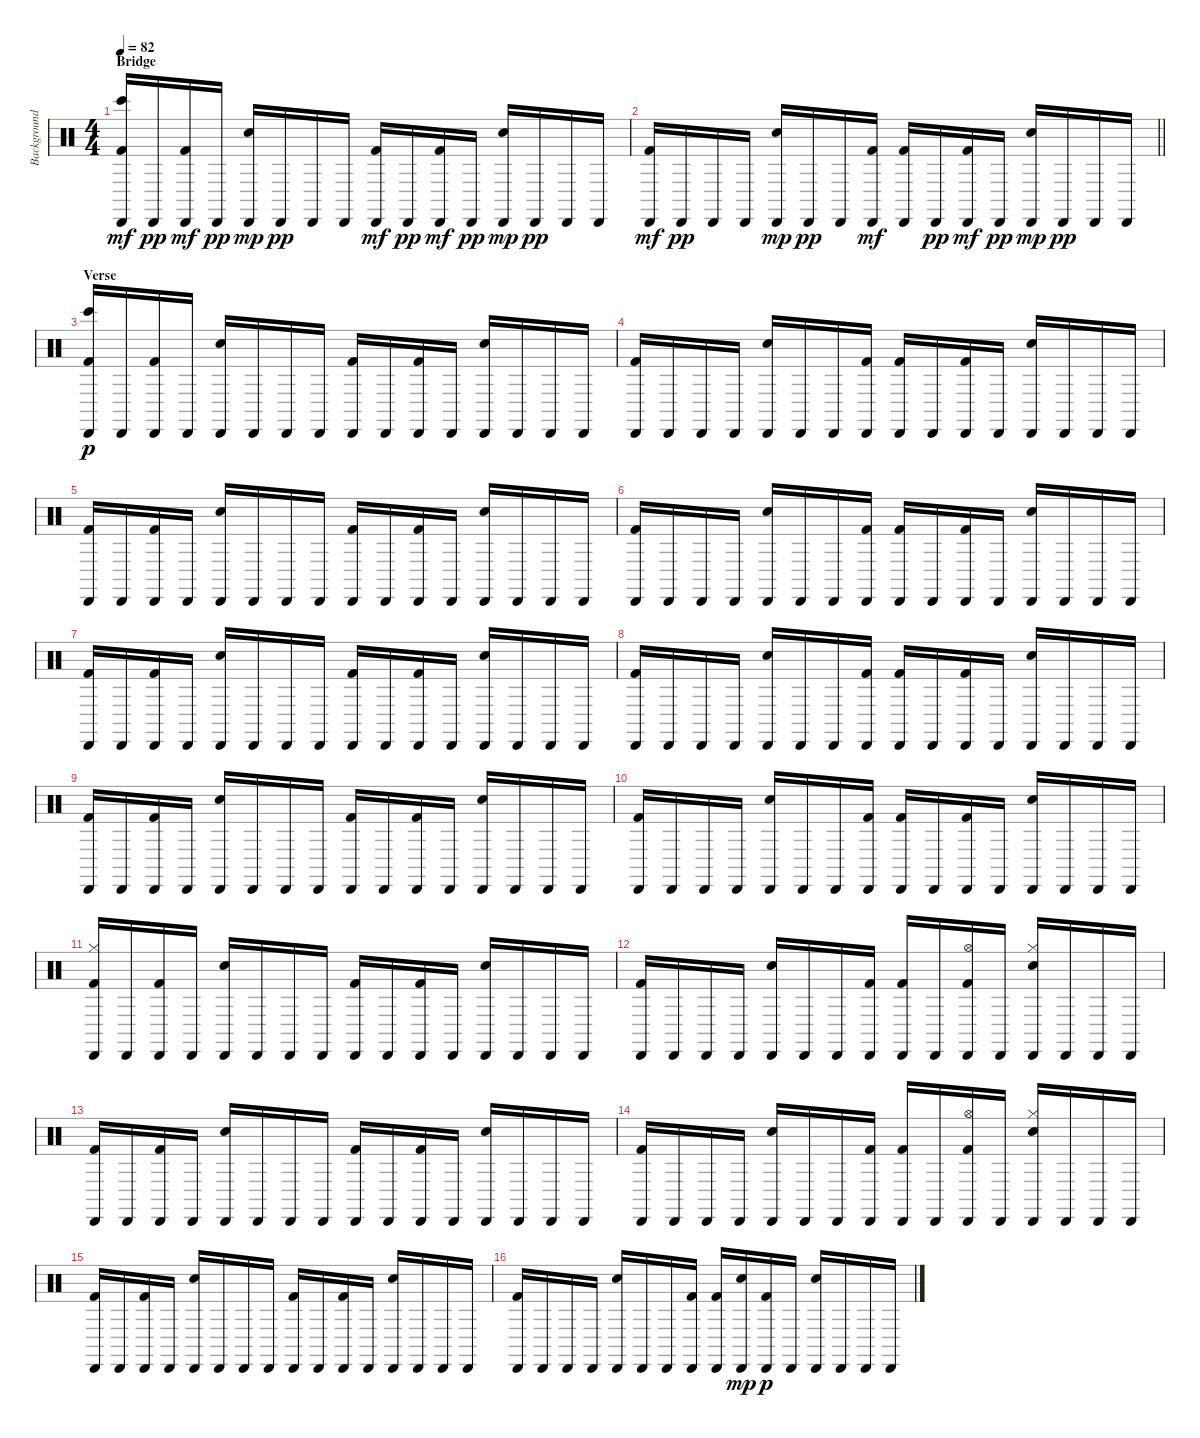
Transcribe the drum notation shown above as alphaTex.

\track ("Background Drums" "Background") {instrument percussion}
\staff {score}
\articulation defaults
\ts (4 4)
\section ("" "Bridge")
\tempo 82
\clef neutral
\ks c
("Cabasa (hit)" "Bongo High (hit)" "Kick (hit) 2").16{dy mf volume 10} "Cabasa (hit)".16{dy pp} ("Cabasa (hit)" "Kick (hit) 2").16{dy mf} "Cabasa (hit)".16{dy pp} ("Cabasa (hit)" "Electric Snare (hit)").16{dy mp} "Cabasa (hit)".16{dy pp} "Cabasa (hit)".16 "Cabasa (hit)".16 ("Cabasa (hit)" "Kick (hit) 2").16{dy mf} "Cabasa (hit)".16{dy pp} ("Cabasa (hit)" "Kick (hit) 2").16{dy mf} "Cabasa (hit)".16{dy pp} ("Cabasa (hit)" "Electric Snare (hit)").16{dy mp} "Cabasa (hit)".16{dy pp} "Cabasa (hit)".16 "Cabasa (hit)".16 |
\barLineRight lightlight
("Cabasa (hit)" "Kick (hit) 2").16{dy mf} "Cabasa (hit)".16{dy pp} "Cabasa (hit)".16 "Cabasa (hit)".16 ("Cabasa (hit)" "Electric Snare (hit)").16{dy mp} "Cabasa (hit)".16{dy pp} "Cabasa (hit)".16 ("Cabasa (hit)" "Kick (hit) 2").16{dy mf} ("Cabasa (hit)" "Kick (hit) 2").16 "Cabasa (hit)".16{dy pp} ("Cabasa (hit)" "Kick (hit) 2").16{dy mf} "Cabasa (hit)".16{dy pp} ("Cabasa (hit)" "Electric Snare (hit)").16{dy mp} "Cabasa (hit)".16{dy pp} "Cabasa (hit)".16 "Cabasa (hit)".16 |
\section ("" "Verse")
("Cabasa (hit)" "Bongo High (hit)" "Kick (hit) 2").16{dy p} "Cabasa (hit)".16 ("Cabasa (hit)" "Kick (hit) 2").16 "Cabasa (hit)".16 ("Cabasa (hit)" "Snare (hit) 2").16 "Cabasa (hit)".16 "Cabasa (hit)".16 "Cabasa (hit)".16 ("Cabasa (hit)" "Kick (hit) 2").16 "Cabasa (hit)".16 ("Cabasa (hit)" "Kick (hit) 2").16 "Cabasa (hit)".16 ("Cabasa (hit)" "Snare (hit) 2").16 "Cabasa (hit)".16 "Cabasa (hit)".16 "Cabasa (hit)".16 |
("Cabasa (hit)" "Kick (hit) 2").16 "Cabasa (hit)".16 "Cabasa (hit)".16 "Cabasa (hit)".16 ("Cabasa (hit)" "Snare (hit) 2").16 "Cabasa (hit)".16 "Cabasa (hit)".16 ("Cabasa (hit)" "Kick (hit) 2").16 ("Cabasa (hit)" "Kick (hit) 2").16 "Cabasa (hit)".16 ("Cabasa (hit)" "Kick (hit) 2").16 "Cabasa (hit)".16 ("Cabasa (hit)" "Snare (hit) 2").16 "Cabasa (hit)".16 "Cabasa (hit)".16 "Cabasa (hit)".16 |
("Cabasa (hit)" "Kick (hit) 2").16 "Cabasa (hit)".16 ("Cabasa (hit)" "Kick (hit) 2").16 "Cabasa (hit)".16 ("Cabasa (hit)" "Snare (hit) 2").16 "Cabasa (hit)".16 "Cabasa (hit)".16 "Cabasa (hit)".16 ("Cabasa (hit)" "Kick (hit) 2").16 "Cabasa (hit)".16 ("Cabasa (hit)" "Kick (hit) 2").16 "Cabasa (hit)".16 ("Cabasa (hit)" "Snare (hit) 2").16 "Cabasa (hit)".16 "Cabasa (hit)".16 "Cabasa (hit)".16 |
("Cabasa (hit)" "Kick (hit) 2").16 "Cabasa (hit)".16 "Cabasa (hit)".16 "Cabasa (hit)".16 ("Cabasa (hit)" "Snare (hit) 2").16 "Cabasa (hit)".16 "Cabasa (hit)".16 ("Cabasa (hit)" "Kick (hit) 2").16 ("Cabasa (hit)" "Kick (hit) 2").16 "Cabasa (hit)".16 ("Cabasa (hit)" "Kick (hit) 2").16 "Cabasa (hit)".16 ("Cabasa (hit)" "Snare (hit) 2").16 "Cabasa (hit)".16 "Cabasa (hit)".16 "Cabasa (hit)".16 |
("Cabasa (hit)" "Kick (hit) 2").16 "Cabasa (hit)".16 ("Cabasa (hit)" "Kick (hit) 2").16 "Cabasa (hit)".16 ("Cabasa (hit)" "Snare (hit) 2").16 "Cabasa (hit)".16 "Cabasa (hit)".16 "Cabasa (hit)".16 ("Cabasa (hit)" "Kick (hit) 2").16 "Cabasa (hit)".16 ("Cabasa (hit)" "Kick (hit) 2").16 "Cabasa (hit)".16 ("Cabasa (hit)" "Snare (hit) 2").16 "Cabasa (hit)".16 "Cabasa (hit)".16 "Cabasa (hit)".16 |
("Cabasa (hit)" "Kick (hit) 2").16 "Cabasa (hit)".16 "Cabasa (hit)".16 "Cabasa (hit)".16 ("Cabasa (hit)" "Snare (hit) 2").16 "Cabasa (hit)".16 "Cabasa (hit)".16 ("Cabasa (hit)" "Kick (hit) 2").16 ("Cabasa (hit)" "Kick (hit) 2").16 "Cabasa (hit)".16 ("Cabasa (hit)" "Kick (hit) 2").16 "Cabasa (hit)".16 ("Cabasa (hit)" "Snare (hit) 2").16 "Cabasa (hit)".16 "Cabasa (hit)".16 "Cabasa (hit)".16 |
("Cabasa (hit)" "Kick (hit) 2").16 "Cabasa (hit)".16 ("Cabasa (hit)" "Kick (hit) 2").16 "Cabasa (hit)".16 ("Cabasa (hit)" "Snare (hit) 2").16 "Cabasa (hit)".16 "Cabasa (hit)".16 "Cabasa (hit)".16 ("Cabasa (hit)" "Kick (hit) 2").16 "Cabasa (hit)".16 ("Cabasa (hit)" "Kick (hit) 2").16 "Cabasa (hit)".16 ("Cabasa (hit)" "Snare (hit) 2").16 "Cabasa (hit)".16 "Cabasa (hit)".16 "Cabasa (hit)".16 |
("Cabasa (hit)" "Kick (hit) 2").16 "Cabasa (hit)".16 "Cabasa (hit)".16 "Cabasa (hit)".16 ("Cabasa (hit)" "Snare (hit) 2").16 "Cabasa (hit)".16 "Cabasa (hit)".16 ("Cabasa (hit)" "Kick (hit) 2").16 ("Cabasa (hit)" "Kick (hit) 2").16 "Cabasa (hit)".16 ("Cabasa (hit)" "Kick (hit) 2").16 "Cabasa (hit)".16 ("Cabasa (hit)" "Snare (hit) 2").16 "Cabasa (hit)".16 "Cabasa (hit)".16 "Cabasa (hit)".16 |
("Hi-Hat (closed)" "Cabasa (hit)" "Kick (hit) 2").16 "Cabasa (hit)".16 ("Cabasa (hit)" "Kick (hit) 2").16 "Cabasa (hit)".16 ("Cabasa (hit)" "Snare (hit) 2").16 "Cabasa (hit)".16 "Cabasa (hit)".16 "Cabasa (hit)".16 ("Cabasa (hit)" "Kick (hit) 2").16 "Cabasa (hit)".16 ("Cabasa (hit)" "Kick (hit) 2").16 "Cabasa (hit)".16 ("Cabasa (hit)" "Snare (hit) 2").16 "Cabasa (hit)".16 "Cabasa (hit)".16 "Cabasa (hit)".16 |
("Cabasa (hit)" "Kick (hit) 2").16 "Cabasa (hit)".16 "Cabasa (hit)".16 "Cabasa (hit)".16 ("Cabasa (hit)" "Snare (hit) 2").16 "Cabasa (hit)".16 "Cabasa (hit)".16 ("Cabasa (hit)" "Kick (hit) 2").16 ("Cabasa (hit)" "Kick (hit) 2").16 "Cabasa (hit)".16 ("Hi-Hat (open)" "Cabasa (hit)" "Kick (hit) 2").16 "Cabasa (hit)".16 ("Hi-Hat (closed)" "Cabasa (hit)" "Snare (hit) 2").16 "Cabasa (hit)".16 "Cabasa (hit)".16 "Cabasa (hit)".16 |
("Cabasa (hit)" "Kick (hit) 2").16 "Cabasa (hit)".16 ("Cabasa (hit)" "Kick (hit) 2").16 "Cabasa (hit)".16 ("Cabasa (hit)" "Snare (hit) 2").16 "Cabasa (hit)".16 "Cabasa (hit)".16 "Cabasa (hit)".16 ("Cabasa (hit)" "Kick (hit) 2").16 "Cabasa (hit)".16 ("Cabasa (hit)" "Kick (hit) 2").16 "Cabasa (hit)".16 ("Cabasa (hit)" "Snare (hit) 2").16 "Cabasa (hit)".16 "Cabasa (hit)".16 "Cabasa (hit)".16 |
("Cabasa (hit)" "Kick (hit) 2").16 "Cabasa (hit)".16 "Cabasa (hit)".16 "Cabasa (hit)".16 ("Cabasa (hit)" "Snare (hit) 2").16 "Cabasa (hit)".16 "Cabasa (hit)".16 ("Cabasa (hit)" "Kick (hit) 2").16 ("Cabasa (hit)" "Kick (hit) 2").16 "Cabasa (hit)".16 ("Hi-Hat (open)" "Cabasa (hit)" "Kick (hit) 2").16 "Cabasa (hit)".16 ("Hi-Hat (closed)" "Cabasa (hit)" "Snare (hit) 2").16 "Cabasa (hit)".16 "Cabasa (hit)".16 "Cabasa (hit)".16 |
("Cabasa (hit)" "Kick (hit) 2").16 "Cabasa (hit)".16 ("Cabasa (hit)" "Kick (hit) 2").16 "Cabasa (hit)".16 ("Cabasa (hit)" "Snare (hit) 2").16 "Cabasa (hit)".16 "Cabasa (hit)".16 "Cabasa (hit)".16 ("Cabasa (hit)" "Kick (hit) 2").16 "Cabasa (hit)".16 ("Cabasa (hit)" "Kick (hit) 2").16 "Cabasa (hit)".16 ("Cabasa (hit)" "Snare (hit) 2").16 "Cabasa (hit)".16 "Cabasa (hit)".16 "Cabasa (hit)".16 |
("Cabasa (hit)" "Kick (hit) 2").16 "Cabasa (hit)".16 "Cabasa (hit)".16 "Cabasa (hit)".16 ("Cabasa (hit)" "Snare (hit) 2").16 "Cabasa (hit)".16 "Cabasa (hit)".16 ("Cabasa (hit)" "Kick (hit) 2").16 ("Cabasa (hit)" "Kick (hit) 2").16 ("Cabasa (hit)" "Electric Snare (hit)").16{dy mp} ("Cabasa (hit)" "Kick (hit) 2").16{dy p} "Cabasa (hit)".16 ("Cabasa (hit)" "Snare (hit) 2").16 "Cabasa (hit)".16 "Cabasa (hit)".16 "Cabasa (hit)".16
